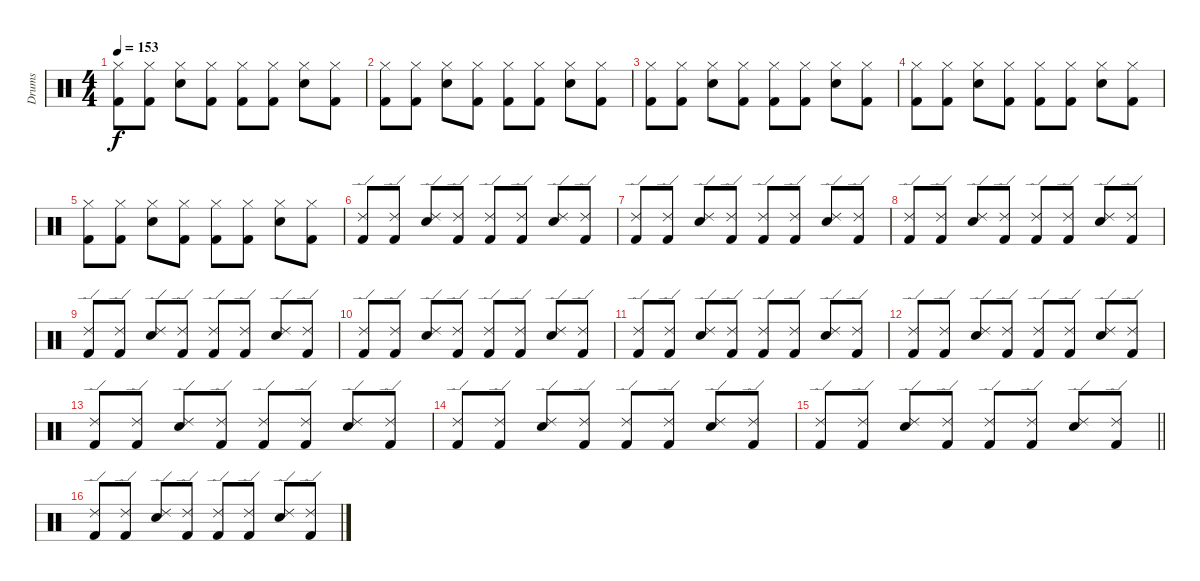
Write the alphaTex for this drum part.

\track ("Drums" "Drums") {instrument percussion}
\staff {score}
\articulation defaults
\ts (4 4)
\tempo 153
\clef neutral
\ks c
("Kick (hit) 2" "Hi-Hat (closed)").8{dy f} ("Kick (hit) 2" "Hi-Hat (closed)").8 ("Electric Snare (hit)" "Hi-Hat (closed)").8 ("Kick (hit) 2" "Hi-Hat (closed)").8 ("Kick (hit) 2" "Hi-Hat (closed)").8 ("Kick (hit) 2" "Hi-Hat (closed)").8 ("Electric Snare (hit)" "Hi-Hat (closed)").8 ("Kick (hit) 2" "Hi-Hat (closed)").8 |
("Kick (hit) 2" "Hi-Hat (closed)").8 ("Kick (hit) 2" "Hi-Hat (closed)").8 ("Electric Snare (hit)" "Hi-Hat (closed)").8 ("Kick (hit) 2" "Hi-Hat (closed)").8 ("Kick (hit) 2" "Hi-Hat (closed)").8 ("Kick (hit) 2" "Hi-Hat (closed)").8 ("Electric Snare (hit)" "Hi-Hat (closed)").8 ("Kick (hit) 2" "Hi-Hat (closed)").8 |
("Kick (hit) 2" "Hi-Hat (closed)").8 ("Kick (hit) 2" "Hi-Hat (closed)").8 ("Electric Snare (hit)" "Hi-Hat (closed)").8 ("Kick (hit) 2" "Hi-Hat (closed)").8 ("Kick (hit) 2" "Hi-Hat (closed)").8 ("Kick (hit) 2" "Hi-Hat (closed)").8 ("Electric Snare (hit)" "Hi-Hat (closed)").8 ("Kick (hit) 2" "Hi-Hat (closed)").8 |
("Kick (hit) 2" "Hi-Hat (closed)").8 ("Kick (hit) 2" "Hi-Hat (closed)").8 ("Electric Snare (hit)" "Hi-Hat (closed)").8 ("Kick (hit) 2" "Hi-Hat (closed)").8 ("Kick (hit) 2" "Hi-Hat (closed)").8 ("Kick (hit) 2" "Hi-Hat (closed)").8 ("Electric Snare (hit)" "Hi-Hat (closed)").8 ("Kick (hit) 2" "Hi-Hat (closed)").8 |
("Kick (hit) 2" "Hi-Hat (closed)").8 ("Kick (hit) 2" "Hi-Hat (closed)").8 ("Electric Snare (hit)" "Hi-Hat (closed)").8 ("Kick (hit) 2" "Hi-Hat (closed)").8 ("Kick (hit) 2" "Hi-Hat (closed)").8 ("Kick (hit) 2" "Hi-Hat (closed)").8 ("Electric Snare (hit)" "Hi-Hat (closed)").8 ("Kick (hit) 2" "Hi-Hat (closed)").8 |
("Kick (hit) 2" "Ride (edge) 2").8 ("Kick (hit) 2" "Ride (edge) 2").8 ("Electric Snare (hit)" "Ride (edge) 2").8 ("Kick (hit) 2" "Ride (edge) 2").8 ("Kick (hit) 2" "Ride (edge) 2").8 ("Kick (hit) 2" "Ride (edge) 2").8 ("Electric Snare (hit)" "Ride (edge) 2").8 ("Kick (hit) 2" "Ride (edge) 2").8 |
("Kick (hit) 2" "Ride (edge) 2").8 ("Kick (hit) 2" "Ride (edge) 2").8 ("Electric Snare (hit)" "Ride (edge) 2").8 ("Kick (hit) 2" "Ride (edge) 2").8 ("Kick (hit) 2" "Ride (edge) 2").8 ("Kick (hit) 2" "Ride (edge) 2").8 ("Electric Snare (hit)" "Ride (edge) 2").8 ("Kick (hit) 2" "Ride (edge) 2").8 |
("Kick (hit) 2" "Ride (edge) 2").8 ("Kick (hit) 2" "Ride (edge) 2").8 ("Electric Snare (hit)" "Ride (edge) 2").8 ("Kick (hit) 2" "Ride (edge) 2").8 ("Kick (hit) 2" "Ride (edge) 2").8 ("Kick (hit) 2" "Ride (edge) 2").8 ("Electric Snare (hit)" "Ride (edge) 2").8 ("Kick (hit) 2" "Ride (edge) 2").8 |
("Kick (hit) 2" "Ride (edge) 2").8 ("Kick (hit) 2" "Ride (edge) 2").8 ("Electric Snare (hit)" "Ride (edge) 2").8 ("Kick (hit) 2" "Ride (edge) 2").8 ("Kick (hit) 2" "Ride (edge) 2").8 ("Kick (hit) 2" "Ride (edge) 2").8 ("Electric Snare (hit)" "Ride (edge) 2").8 ("Kick (hit) 2" "Ride (edge) 2").8 |
("Kick (hit) 2" "Ride (edge) 2").8 ("Kick (hit) 2" "Ride (edge) 2").8 ("Electric Snare (hit)" "Ride (edge) 2").8 ("Kick (hit) 2" "Ride (edge) 2").8 ("Kick (hit) 2" "Ride (edge) 2").8 ("Kick (hit) 2" "Ride (edge) 2").8 ("Electric Snare (hit)" "Ride (edge) 2").8 ("Kick (hit) 2" "Ride (edge) 2").8 |
("Kick (hit) 2" "Ride (edge) 2").8 ("Kick (hit) 2" "Ride (edge) 2").8 ("Electric Snare (hit)" "Ride (edge) 2").8 ("Kick (hit) 2" "Ride (edge) 2").8 ("Kick (hit) 2" "Ride (edge) 2").8 ("Kick (hit) 2" "Ride (edge) 2").8 ("Electric Snare (hit)" "Ride (edge) 2").8 ("Kick (hit) 2" "Ride (edge) 2").8 |
("Kick (hit) 2" "Ride (edge) 2").8 ("Kick (hit) 2" "Ride (edge) 2").8 ("Electric Snare (hit)" "Ride (edge) 2").8 ("Kick (hit) 2" "Ride (edge) 2").8 ("Kick (hit) 2" "Ride (edge) 2").8 ("Kick (hit) 2" "Ride (edge) 2").8 ("Electric Snare (hit)" "Ride (edge) 2").8 ("Kick (hit) 2" "Ride (edge) 2").8 |
("Kick (hit) 2" "Ride (edge) 2").8 ("Kick (hit) 2" "Ride (edge) 2").8 ("Electric Snare (hit)" "Ride (edge) 2").8 ("Kick (hit) 2" "Ride (edge) 2").8 ("Kick (hit) 2" "Ride (edge) 2").8 ("Kick (hit) 2" "Ride (edge) 2").8 ("Electric Snare (hit)" "Ride (edge) 2").8 ("Kick (hit) 2" "Ride (edge) 2").8 |
("Kick (hit) 2" "Ride (edge) 2").8 ("Kick (hit) 2" "Ride (edge) 2").8 ("Electric Snare (hit)" "Ride (edge) 2").8 ("Kick (hit) 2" "Ride (edge) 2").8 ("Kick (hit) 2" "Ride (edge) 2").8 ("Kick (hit) 2" "Ride (edge) 2").8 ("Electric Snare (hit)" "Ride (edge) 2").8 ("Kick (hit) 2" "Ride (edge) 2").8 |
\barLineRight lightlight
("Kick (hit) 2" "Ride (edge) 2").8 ("Kick (hit) 2" "Ride (edge) 2").8 ("Electric Snare (hit)" "Ride (edge) 2").8 ("Kick (hit) 2" "Ride (edge) 2").8 ("Kick (hit) 2" "Ride (edge) 2").8 ("Kick (hit) 2" "Ride (edge) 2").8 ("Electric Snare (hit)" "Ride (edge) 2").8 ("Kick (hit) 2" "Ride (edge) 2").8 |
("Kick (hit) 2" "Ride (edge) 2").8 ("Kick (hit) 2" "Ride (edge) 2").8 ("Electric Snare (hit)" "Ride (edge) 2").8 ("Kick (hit) 2" "Ride (edge) 2").8 ("Kick (hit) 2" "Ride (edge) 2").8 ("Kick (hit) 2" "Ride (edge) 2").8 ("Electric Snare (hit)" "Ride (edge) 2").8 ("Kick (hit) 2" "Ride (edge) 2").8
